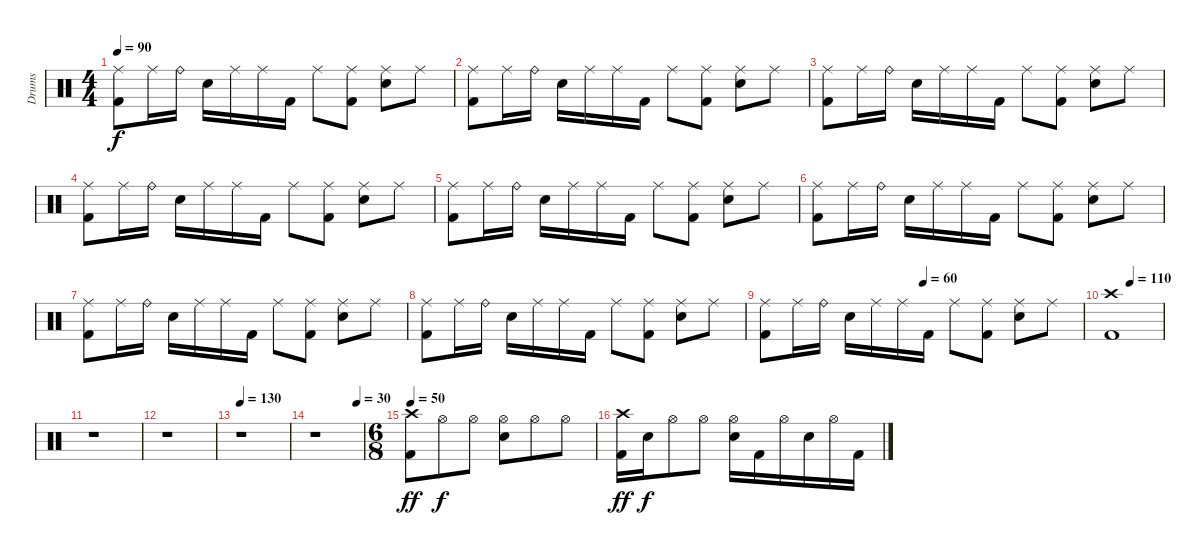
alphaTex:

\track ("Drums" "Drums") {instrument percussion}
\staff {score}
\articulation defaults
\ts (4 4)
\tempo 90
\clef neutral
\ks c
("Ride (middle)" "Kick (hit) 2").8{dy f} "Ride (middle)".16 "Ride (bell)".16 "Electric Snare (hit)".16 "Ride (middle)".16 "Ride (middle)".16 "Kick (hit) 2".16 "Ride (middle)".8 ("Ride (middle)" "Kick (hit) 2").8 ("Ride (middle)" "Electric Snare (hit)").8 "Ride (middle)".8 |
("Ride (middle)" "Kick (hit) 2").8 "Ride (middle)".16 "Ride (bell)".16 "Electric Snare (hit)".16 "Ride (middle)".16 "Ride (middle)".16 "Kick (hit) 2".16 "Ride (middle)".8 ("Ride (middle)" "Kick (hit) 2").8 ("Ride (middle)" "Electric Snare (hit)").8 "Ride (middle)".8 |
("Ride (middle)" "Kick (hit) 2").8 "Ride (middle)".16 "Ride (bell)".16 "Electric Snare (hit)".16 "Ride (middle)".16 "Ride (middle)".16 "Kick (hit) 2".16 "Ride (middle)".8 ("Ride (middle)" "Kick (hit) 2").8 ("Ride (middle)" "Electric Snare (hit)").8 "Ride (middle)".8 |
("Ride (middle)" "Kick (hit) 2").8 "Ride (middle)".16 "Ride (bell)".16 "Electric Snare (hit)".16 "Ride (middle)".16 "Ride (middle)".16 "Kick (hit) 2".16 "Ride (middle)".8 ("Ride (middle)" "Kick (hit) 2").8 ("Ride (middle)" "Electric Snare (hit)").8 "Ride (middle)".8 |
("Ride (middle)" "Kick (hit) 2").8 "Ride (middle)".16 "Ride (bell)".16 "Electric Snare (hit)".16 "Ride (middle)".16 "Ride (middle)".16 "Kick (hit) 2".16 "Ride (middle)".8 ("Ride (middle)" "Kick (hit) 2").8 ("Ride (middle)" "Electric Snare (hit)").8 "Ride (middle)".8 |
("Ride (middle)" "Kick (hit) 2").8 "Ride (middle)".16 "Ride (bell)".16 "Electric Snare (hit)".16 "Ride (middle)".16 "Ride (middle)".16 "Kick (hit) 2".16 "Ride (middle)".8 ("Ride (middle)" "Kick (hit) 2").8 ("Ride (middle)" "Electric Snare (hit)").8 "Ride (middle)".8 |
("Ride (middle)" "Kick (hit) 2").8 "Ride (middle)".16 "Ride (bell)".16 "Electric Snare (hit)".16 "Ride (middle)".16 "Ride (middle)".16 "Kick (hit) 2".16 "Ride (middle)".8 ("Ride (middle)" "Kick (hit) 2").8 ("Ride (middle)" "Electric Snare (hit)").8 "Ride (middle)".8 |
("Ride (middle)" "Kick (hit) 2").8 "Ride (middle)".16 "Ride (bell)".16 "Electric Snare (hit)".16 "Ride (middle)".16 "Ride (middle)".16 "Kick (hit) 2".16 "Ride (middle)".8 ("Ride (middle)" "Kick (hit) 2").8 ("Ride (middle)" "Electric Snare (hit)").8 "Ride (middle)".8 |
\tempo (60 0.5)
("Ride (middle)" "Kick (hit) 2").8 "Ride (middle)".16 "Ride (bell)".16 "Electric Snare (hit)".16 "Ride (middle)".16 "Ride (middle)".16 "Kick (hit) 2".16 "Ride (middle)".8 ("Ride (middle)" "Kick (hit) 2").8 ("Ride (middle)" "Electric Snare (hit)").8 "Ride (middle)".8 |
\tempo (110 0.375)
("Crash high (hit)" "Kick (hit) 2").1 |
r.1 |
r.1 |
\tempo 130
r.1 |
\tempo (30 0.875)
r.1 |
\ts (6 8)
\tempo 50
("Crash high (hit)" "Kick (hit) 2").8{dy ff} "Hi-Hat (open)".8{dy f} "Hi-Hat (open)".8 ("Hi-Hat (open)" "Electric Snare (hit)").8 "Hi-Hat (open)".8 "Hi-Hat (open)".8 |
("Crash high (hit)" "Kick (hit) 2").16{dy ff} "Electric Snare (hit)".16{dy f} "Hi-Hat (open)".8 "Hi-Hat (open)".8 ("Hi-Hat (open)" "Electric Snare (hit)").16 "Kick (hit) 2".16 "Hi-Hat (open)".16 "Electric Snare (hit)".16 "Hi-Hat (open)".16 "Kick (hit) 2".16
